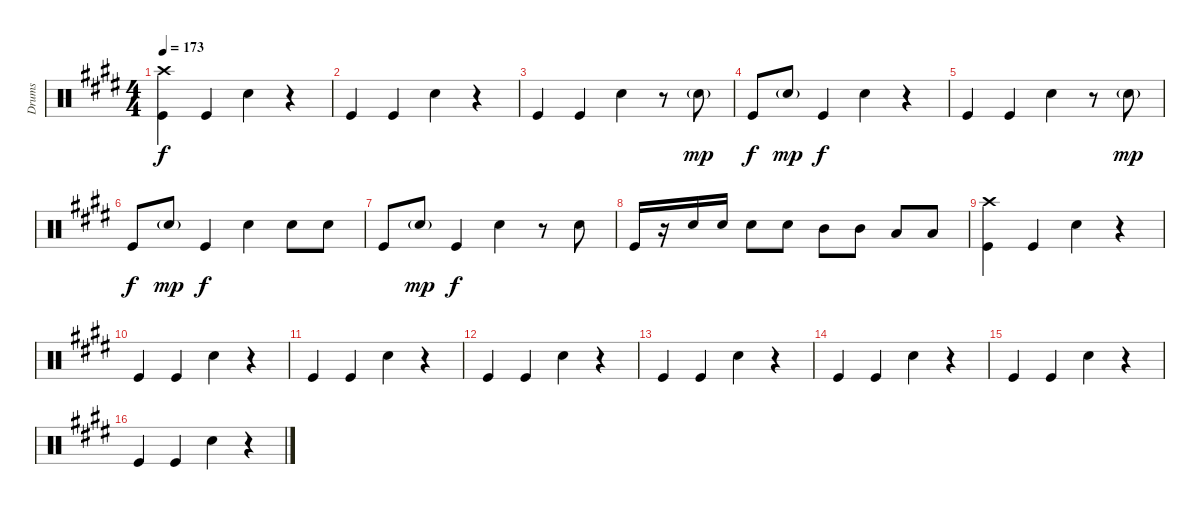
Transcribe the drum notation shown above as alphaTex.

\track ("Drums" "Drums") {instrument percussion}
\staff {score}
\articulation defaults
\ts (4 4)
\tempo 173
\clef neutral
\ks e
("Kick (hit)" "Crash high (hit)").4{dy f} "Kick (hit)".4 "Snare (hit) 2".4 r.4 |
"Kick (hit)".4 "Kick (hit)".4 "Snare (hit) 2".4 r.4 |
"Kick (hit)".4 "Kick (hit)".4 "Snare (hit) 2".4 r.8 "Snare (hit) 2"{g}.8{dy mp} |
"Kick (hit)".8{dy f} "Snare (hit) 2"{g}.8{dy mp} "Kick (hit)".4{dy f} "Snare (hit) 2".4 r.4 |
"Kick (hit)".4 "Kick (hit)".4 "Snare (hit) 2".4 r.8 "Snare (hit) 2"{g}.8{dy mp} |
"Kick (hit)".8{dy f} "Snare (hit) 2"{g}.8{dy mp} "Kick (hit)".4{dy f} "Snare (hit) 2".4 "Snare (hit) 2".8 "Snare (hit) 2".8 |
"Kick (hit)".8 "Snare (hit) 2"{g}.8{dy mp} "Kick (hit)".4{dy f} "Snare (hit) 2".4 r.8 "Snare (hit) 2".8 |
"Kick (hit)".16 r.16 "Snare (hit) 2".16 "Snare (hit) 2".16 "Snare (hit) 2".8 "Snare (hit) 2".8 "Mid Tom (hit)".8 "Mid Tom (hit)".8 "Low Tom (hit)".8 "Low Tom (hit)".8 |
("Kick (hit)" "Crash high (hit)").4 "Kick (hit)".4 "Snare (hit) 2".4 r.4 |
"Kick (hit)".4 "Kick (hit)".4 "Snare (hit) 2".4 r.4 |
"Kick (hit)".4 "Kick (hit)".4 "Snare (hit) 2".4 r.4 |
"Kick (hit)".4 "Kick (hit)".4 "Snare (hit) 2".4 r.4 |
"Kick (hit)".4 "Kick (hit)".4 "Snare (hit) 2".4 r.4 |
"Kick (hit)".4 "Kick (hit)".4 "Snare (hit) 2".4 r.4 |
"Kick (hit)".4 "Kick (hit)".4 "Snare (hit) 2".4 r.4 |
"Kick (hit)".4 "Kick (hit)".4 "Snare (hit) 2".4 r.4
